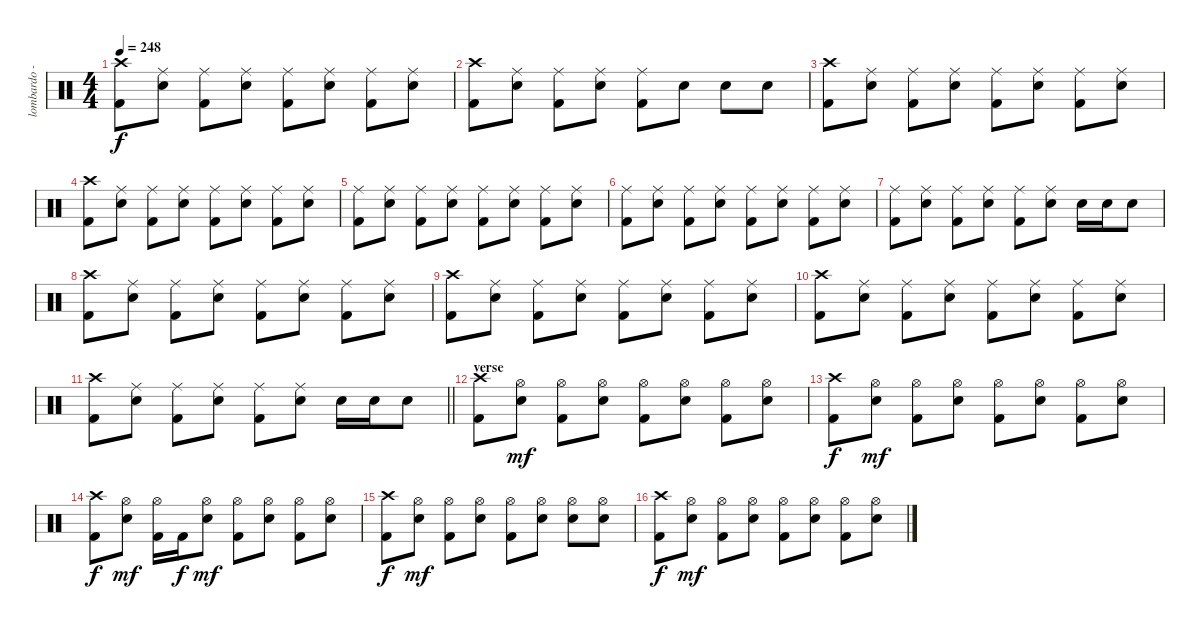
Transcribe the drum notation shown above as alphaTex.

\track ("lombardo - drums" "lombardo -") {instrument percussion}
\staff {score}
\articulation defaults
\ts (4 4)
\tempo 248
\clef neutral
\ks c
("Crash high (hit)" "Kick (hit) 2").8{dy f} ("Ride (middle)" "Snare (hit) 2").8 ("Ride (middle)" "Kick (hit) 2").8 ("Ride (middle)" "Snare (hit) 2").8 ("Ride (middle)" "Kick (hit) 2").8 ("Ride (middle)" "Snare (hit) 2").8 ("Ride (middle)" "Kick (hit) 2").8 ("Ride (middle)" "Snare (hit) 2").8 |
("Crash high (hit)" "Kick (hit) 2").8 ("Ride (middle)" "Snare (hit) 2").8 ("Ride (middle)" "Kick (hit) 2").8 ("Ride (middle)" "Snare (hit) 2").8 ("Ride (middle)" "Kick (hit) 2").8 "Snare (hit) 2".8 "Snare (hit) 2".8 "Snare (hit) 2".8 |
("Crash high (hit)" "Kick (hit) 2").8 ("Ride (middle)" "Snare (hit) 2").8 ("Ride (middle)" "Kick (hit) 2").8 ("Ride (middle)" "Snare (hit) 2").8 ("Ride (middle)" "Kick (hit) 2").8 ("Ride (middle)" "Snare (hit) 2").8 ("Ride (middle)" "Kick (hit) 2").8 ("Ride (middle)" "Snare (hit) 2").8 |
("Crash high (hit)" "Kick (hit) 2").8 ("Ride (middle)" "Snare (hit) 2").8 ("Ride (middle)" "Kick (hit) 2").8 ("Ride (middle)" "Snare (hit) 2").8 ("Ride (middle)" "Kick (hit) 2").8 ("Ride (middle)" "Snare (hit) 2").8 ("Ride (middle)" "Kick (hit) 2").8 ("Ride (middle)" "Snare (hit) 2").8 |
("Ride (middle)" "Kick (hit) 2").8 ("Ride (middle)" "Snare (hit) 2").8 ("Ride (middle)" "Kick (hit) 2").8 ("Ride (middle)" "Snare (hit) 2").8 ("Ride (middle)" "Kick (hit) 2").8 ("Ride (middle)" "Snare (hit) 2").8 ("Ride (middle)" "Kick (hit) 2").8 ("Ride (middle)" "Snare (hit) 2").8 |
("Ride (middle)" "Kick (hit) 2").8 ("Ride (middle)" "Snare (hit) 2").8 ("Ride (middle)" "Kick (hit) 2").8 ("Ride (middle)" "Snare (hit) 2").8 ("Ride (middle)" "Kick (hit) 2").8 ("Ride (middle)" "Snare (hit) 2").8 ("Ride (middle)" "Kick (hit) 2").8 ("Ride (middle)" "Snare (hit) 2").8 |
("Ride (middle)" "Kick (hit) 2").8 ("Ride (middle)" "Snare (hit) 2").8 ("Ride (middle)" "Kick (hit) 2").8 ("Ride (middle)" "Snare (hit) 2").8 ("Ride (middle)" "Kick (hit) 2").8 ("Ride (middle)" "Snare (hit) 2").8 "Snare (hit) 2".16 "Snare (hit) 2".16 "Snare (hit) 2".8 |
("Crash high (hit)" "Kick (hit) 2").8 ("Ride (middle)" "Snare (hit) 2").8 ("Ride (middle)" "Kick (hit) 2").8 ("Ride (middle)" "Snare (hit) 2").8 ("Ride (middle)" "Kick (hit) 2").8 ("Ride (middle)" "Snare (hit) 2").8 ("Ride (middle)" "Kick (hit) 2").8 ("Ride (middle)" "Snare (hit) 2").8 |
("Crash high (hit)" "Kick (hit) 2").8 ("Ride (middle)" "Snare (hit) 2").8 ("Ride (middle)" "Kick (hit) 2").8 ("Ride (middle)" "Snare (hit) 2").8 ("Ride (middle)" "Kick (hit) 2").8 ("Ride (middle)" "Snare (hit) 2").8 ("Ride (middle)" "Kick (hit) 2").8 ("Ride (middle)" "Snare (hit) 2").8 |
("Crash high (hit)" "Kick (hit) 2").8 ("Ride (middle)" "Snare (hit) 2").8 ("Ride (middle)" "Kick (hit) 2").8 ("Ride (middle)" "Snare (hit) 2").8 ("Ride (middle)" "Kick (hit) 2").8 ("Ride (middle)" "Snare (hit) 2").8 ("Ride (middle)" "Kick (hit) 2").8 ("Ride (middle)" "Snare (hit) 2").8 |
\barLineRight lightlight
("Crash high (hit)" "Kick (hit) 2").8 ("Ride (middle)" "Snare (hit) 2").8 ("Ride (middle)" "Kick (hit) 2").8 ("Ride (middle)" "Snare (hit) 2").8 ("Ride (middle)" "Kick (hit) 2").8 ("Ride (middle)" "Snare (hit) 2").8 "Snare (hit) 2".16 "Snare (hit) 2".16 "Snare (hit) 2".8 |
\section ("" "verse")
("Crash high (hit)" "Kick (hit) 2").8 ("Hi-Hat (open)" "Snare (hit) 2").8{dy mf} ("Hi-Hat (open)" "Kick (hit) 2").8 ("Hi-Hat (open)" "Snare (hit) 2").8 ("Hi-Hat (open)" "Kick (hit) 2").8 ("Hi-Hat (open)" "Snare (hit) 2").8 ("Hi-Hat (open)" "Kick (hit) 2").8 ("Hi-Hat (open)" "Snare (hit) 2").8 |
("Crash high (hit)" "Kick (hit) 2").8{dy f} ("Hi-Hat (open)" "Snare (hit) 2").8{dy mf} ("Hi-Hat (open)" "Kick (hit) 2").8 ("Hi-Hat (open)" "Snare (hit) 2").8 ("Hi-Hat (open)" "Kick (hit) 2").8 ("Hi-Hat (open)" "Snare (hit) 2").8 ("Hi-Hat (open)" "Kick (hit) 2").8 ("Hi-Hat (open)" "Snare (hit) 2").8 |
("Crash high (hit)" "Kick (hit) 2").8{dy f} ("Hi-Hat (open)" "Snare (hit) 2").8{dy mf} ("Hi-Hat (open)" "Kick (hit) 2").16 "Kick (hit) 2".16{dy f} ("Hi-Hat (open)" "Snare (hit) 2").8{dy mf} ("Hi-Hat (open)" "Kick (hit) 2").8 ("Hi-Hat (open)" "Snare (hit) 2").8 ("Hi-Hat (open)" "Kick (hit) 2").8 ("Hi-Hat (open)" "Snare (hit) 2").8 |
("Crash high (hit)" "Kick (hit) 2").8{dy f} ("Hi-Hat (open)" "Snare (hit) 2").8{dy mf} ("Hi-Hat (open)" "Kick (hit) 2").8 ("Hi-Hat (open)" "Snare (hit) 2").8 ("Hi-Hat (open)" "Kick (hit) 2").8 ("Hi-Hat (open)" "Snare (hit) 2").8 ("Hi-Hat (open)" "Snare (hit) 2").8 ("Hi-Hat (open)" "Snare (hit) 2").8 |
("Crash high (hit)" "Kick (hit) 2").8{dy f} ("Hi-Hat (open)" "Snare (hit) 2").8{dy mf} ("Hi-Hat (open)" "Kick (hit) 2").8 ("Hi-Hat (open)" "Snare (hit) 2").8 ("Hi-Hat (open)" "Kick (hit) 2").8 ("Hi-Hat (open)" "Snare (hit) 2").8 ("Hi-Hat (open)" "Kick (hit) 2").8 ("Hi-Hat (open)" "Snare (hit) 2").8
